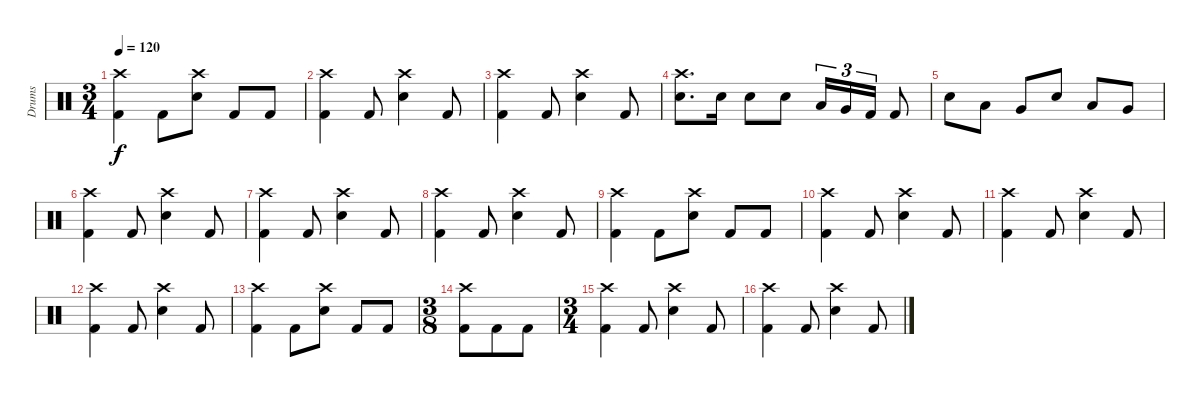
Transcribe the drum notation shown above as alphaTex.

\track ("Drums" "Drums") {instrument percussion}
\staff {score}
\articulation defaults
\ts (3 4)
\tempo 120
\clef neutral
\ks c
("Crash high (hit)" "Kick (hit) 2").4{dy f} "Kick (hit) 2".8 ("Crash high (hit)" "Snare (hit) 2").8 "Kick (hit) 2".8 "Kick (hit) 2".8 |
("Crash high (hit)" "Kick (hit) 2").4 "Kick (hit) 2".8 ("Crash high (hit)" "Snare (hit) 2").4 "Kick (hit) 2".8 |
("Crash high (hit)" "Kick (hit) 2").4 "Kick (hit) 2".8 ("Crash high (hit)" "Snare (hit) 2").4 "Kick (hit) 2".8 |
("Crash high (hit)" "Snare (hit) 2").8{d} "Snare (hit) 2".16 "Snare (hit) 2".8 "Snare (hit) 2".8 "Low Tom (hit)".16{tu (3 2)} "Very Low Tom (hit)".16{tu (3 2)} "Kick (hit) 2".16{tu (3 2)} "Kick (hit) 2".8 |
"Snare (hit) 2".8 "Low Tom (hit)".8 "Very Low Tom (hit)".8 "Snare (hit) 2".8 "Low Tom (hit)".8 "Very Low Tom (hit)".8 |
("Crash high (hit)" "Kick (hit) 2").4 "Kick (hit) 2".8 ("Crash high (hit)" "Snare (hit) 2").4 "Kick (hit) 2".8 |
("Crash high (hit)" "Kick (hit) 2").4 "Kick (hit) 2".8 ("Crash high (hit)" "Snare (hit) 2").4 "Kick (hit) 2".8 |
("Crash high (hit)" "Kick (hit) 2").4 "Kick (hit) 2".8 ("Crash high (hit)" "Snare (hit) 2").4 "Kick (hit) 2".8 |
("Crash high (hit)" "Kick (hit) 2").4 "Kick (hit) 2".8 ("Crash high (hit)" "Snare (hit) 2").8 "Kick (hit) 2".8 "Kick (hit) 2".8 |
("Crash high (hit)" "Kick (hit) 2").4 "Kick (hit) 2".8 ("Crash high (hit)" "Snare (hit) 2").4 "Kick (hit) 2".8 |
("Crash high (hit)" "Kick (hit) 2").4 "Kick (hit) 2".8 ("Crash high (hit)" "Snare (hit) 2").4 "Kick (hit) 2".8 |
("Crash high (hit)" "Kick (hit) 2").4 "Kick (hit) 2".8 ("Crash high (hit)" "Snare (hit) 2").4 "Kick (hit) 2".8 |
("Crash high (hit)" "Kick (hit) 2").4 "Kick (hit) 2".8 ("Crash high (hit)" "Snare (hit) 2").8 "Kick (hit) 2".8 "Kick (hit) 2".8 |
\ts (3 8)
("Crash high (hit)" "Kick (hit) 2").8 "Kick (hit) 2".8 "Kick (hit) 2".8 |
\ts (3 4)
("Crash high (hit)" "Kick (hit) 2").4 "Kick (hit) 2".8 ("Crash high (hit)" "Snare (hit) 2").4 "Kick (hit) 2".8 |
("Crash high (hit)" "Kick (hit) 2").4 "Kick (hit) 2".8 ("Crash high (hit)" "Snare (hit) 2").4 "Kick (hit) 2".8
